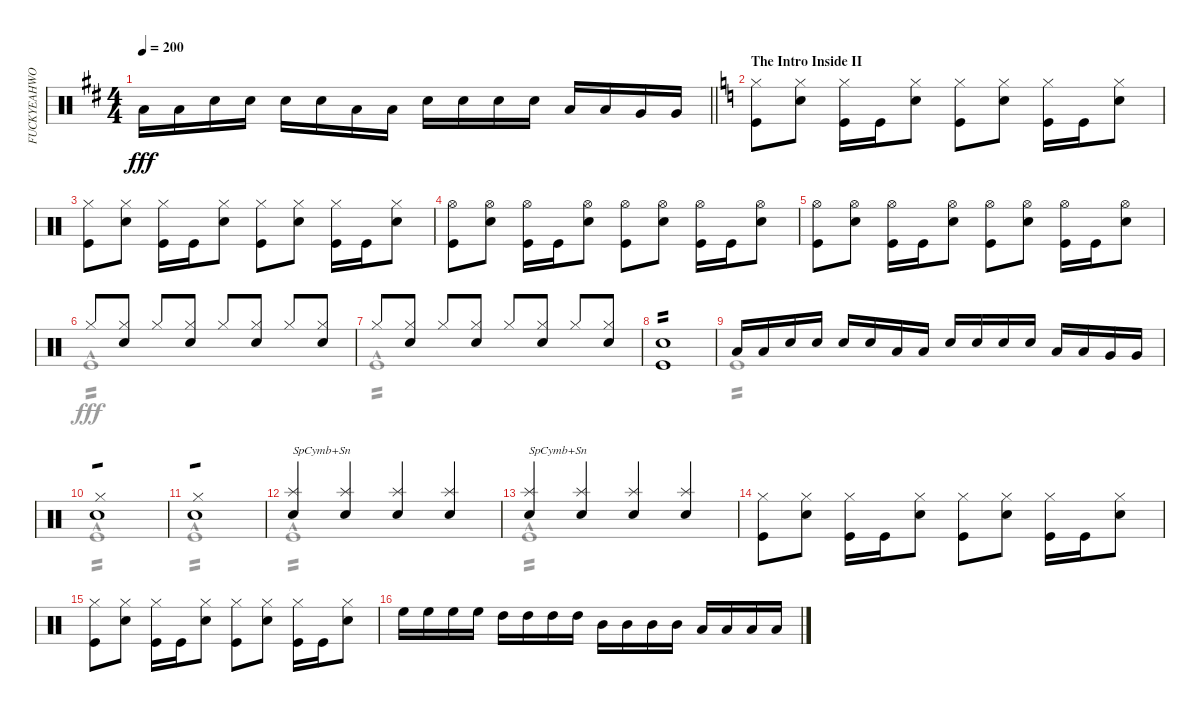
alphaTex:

\track ("FUCKYEAHWOOTDAVEMACKINTOSH!(Percussion)" "FUCKYEAHWO") {instrument percussion}
\staff {score}
\articulation defaults
\voice
\ts (4 4)
\tempo 200
\clef neutral
\barLineRight lightlight
\ks d "Low Tom (hit)".16{dy fff} "Low Tom (hit)".16 "Snare (hit) 2".16 "Snare (hit) 2".16 "Snare (hit) 2".16 "Snare (hit) 2".16 "Low Tom (hit)".16 "Low Tom (hit)".16 "Snare (hit) 2".16 "Snare (hit) 2".16 "Snare (hit) 2".16 "Snare (hit) 2".16 "Low Tom (hit)".16 "Low Tom (hit)".16 "Very Low Tom (hit)".16 "Very Low Tom (hit)".16
|
\section ("" "The Intro Inside II")
\ks c
("Kick (hit)" "Hi-Hat (closed)").8 ("Snare (hit) 2" "Hi-Hat (closed)").8 ("Kick (hit)" "Hi-Hat (closed)").16 "Kick (hit)".16 ("Snare (hit) 2" "Hi-Hat (closed)").8 ("Kick (hit)" "Hi-Hat (closed)").8 ("Snare (hit) 2" "Hi-Hat (closed)").8 ("Kick (hit)" "Hi-Hat (closed)").16 "Kick (hit)".16 ("Snare (hit) 2" "Hi-Hat (closed)").8 |
("Kick (hit)" "Hi-Hat (closed)").8 ("Snare (hit) 2" "Hi-Hat (closed)").8 ("Kick (hit)" "Hi-Hat (closed)").16 "Kick (hit)".16 ("Snare (hit) 2" "Hi-Hat (closed)").8 ("Kick (hit)" "Hi-Hat (closed)").8 ("Snare (hit) 2" "Hi-Hat (closed)").8 ("Kick (hit)" "Hi-Hat (closed)").16 "Kick (hit)".16 ("Snare (hit) 2" "Hi-Hat (closed)").8 |
("Kick (hit)" "Hi-Hat (open)").8 ("Snare (hit) 2" "Hi-Hat (open)").8 ("Kick (hit)" "Hi-Hat (open)").16 "Kick (hit)".16 ("Snare (hit) 2" "Hi-Hat (open)").8 ("Kick (hit)" "Hi-Hat (open)").8 ("Snare (hit) 2" "Hi-Hat (open)").8 ("Kick (hit)" "Hi-Hat (open)").16 "Kick (hit)".16 ("Snare (hit) 2" "Hi-Hat (open)").8 |
("Kick (hit)" "Hi-Hat (open)").8 ("Snare (hit) 2" "Hi-Hat (open)").8 ("Kick (hit)" "Hi-Hat (open)").16 "Kick (hit)".16 ("Snare (hit) 2" "Hi-Hat (open)").8 ("Kick (hit)" "Hi-Hat (open)").8 ("Snare (hit) 2" "Hi-Hat (open)").8 ("Kick (hit)" "Hi-Hat (open)").16 "Kick (hit)".16 ("Snare (hit) 2" "Hi-Hat (open)").8 |
"Hi-Hat (closed)".8 ("Hi-Hat (closed)" "Snare (hit) 2").8 "Hi-Hat (closed)".8 ("Hi-Hat (closed)" "Snare (hit) 2").8 "Hi-Hat (closed)".8 ("Hi-Hat (closed)" "Snare (hit) 2").8 "Hi-Hat (closed)".8 ("Hi-Hat (closed)" "Snare (hit) 2").8 |
"Hi-Hat (closed)".8 ("Hi-Hat (closed)" "Snare (hit) 2").8 "Hi-Hat (closed)".8 ("Hi-Hat (closed)" "Snare (hit) 2").8 "Hi-Hat (closed)".8 ("Hi-Hat (closed)" "Snare (hit) 2").8 "Hi-Hat (closed)".8 ("Hi-Hat (closed)" "Snare (hit) 2").8 |
("Kick (hit)" "Snare (hit) 2").1{tp 2} |
"Low Tom (hit)".16 "Low Tom (hit)".16 "Snare (hit) 2".16 "Snare (hit) 2".16 "Snare (hit) 2".16 "Snare (hit) 2".16 "Low Tom (hit)".16 "Low Tom (hit)".16 "Snare (hit) 2".16 "Snare (hit) 2".16 "Snare (hit) 2".16 "Snare (hit) 2".16 "Low Tom (hit)".16 "Low Tom (hit)".16 "Very Low Tom (hit)".16 "Very Low Tom (hit)".16 |
("Snare (hit) 2" "Hi-Hat (closed)").1{tp 1} |
("Snare (hit) 2" "Hi-Hat (closed)").1{tp 1} |
("Snare (hit) 2" "Splash (hit)").4{txt "SpCymb+Sn"} ("Splash (hit)" "Snare (hit) 2").4 ("Snare (hit) 2" "Splash (hit)").4 ("Snare (hit) 2" "Splash (hit)").4 |
("Snare (hit) 2" "Splash (hit)").4{txt "SpCymb+Sn"} ("Splash (hit)" "Snare (hit) 2").4 ("Snare (hit) 2" "Splash (hit)").4 ("Snare (hit) 2" "Splash (hit)").4 |
("Kick (hit)" "Hi-Hat (closed)").8 ("Snare (hit) 2" "Hi-Hat (closed)").8 ("Kick (hit)" "Hi-Hat (closed)").16 "Kick (hit)".16 ("Snare (hit) 2" "Hi-Hat (closed)").8 ("Kick (hit)" "Hi-Hat (closed)").8 ("Snare (hit) 2" "Hi-Hat (closed)").8 ("Kick (hit)" "Hi-Hat (closed)").16 "Kick (hit)".16 ("Snare (hit) 2" "Hi-Hat (closed)").8 |
("Kick (hit)" "Hi-Hat (closed)").8 ("Snare (hit) 2" "Hi-Hat (closed)").8 ("Kick (hit)" "Hi-Hat (closed)").16 "Kick (hit)".16 ("Snare (hit) 2" "Hi-Hat (closed)").8 ("Kick (hit)" "Hi-Hat (closed)").8 ("Snare (hit) 2" "Hi-Hat (closed)").8 ("Kick (hit)" "Hi-Hat (closed)").16 "Kick (hit)".16 ("Snare (hit) 2" "Hi-Hat (closed)").8 |
"High Floor Tom (hit)".16 "High Floor Tom (hit)".16 "High Floor Tom (hit)".16 "High Floor Tom (hit)".16 "High Tom (hit)".16 "High Tom (hit)".16 "High Tom (hit)".16 "High Tom (hit)".16 "Mid Tom (hit)".16 "Mid Tom (hit)".16 "Mid Tom (hit)".16 "Mid Tom (hit)".16 "Low Tom (hit)".16 "Low Tom (hit)".16 "Low Tom (hit)".16 "Low Tom (hit)".16
\voice
\clef neutral
\ottava regular
\simile none
\barLineRight lightlight
\ks d
|
\ks c
|
|
|
|
"Kick (hit)"{hac}.1{tp 2} |
"Kick (hit)"{hac}.1{tp 2} |
|
"Kick (hit)".1{tp 2} |
"Kick (hit)"{hac}.1{tp 2} |
"Kick (hit)"{hac}.1{tp 2} |
"Kick (hit)"{hac}.1{tp 2} |
"Kick (hit)"{hac}.1{tp 2} |
|
|
